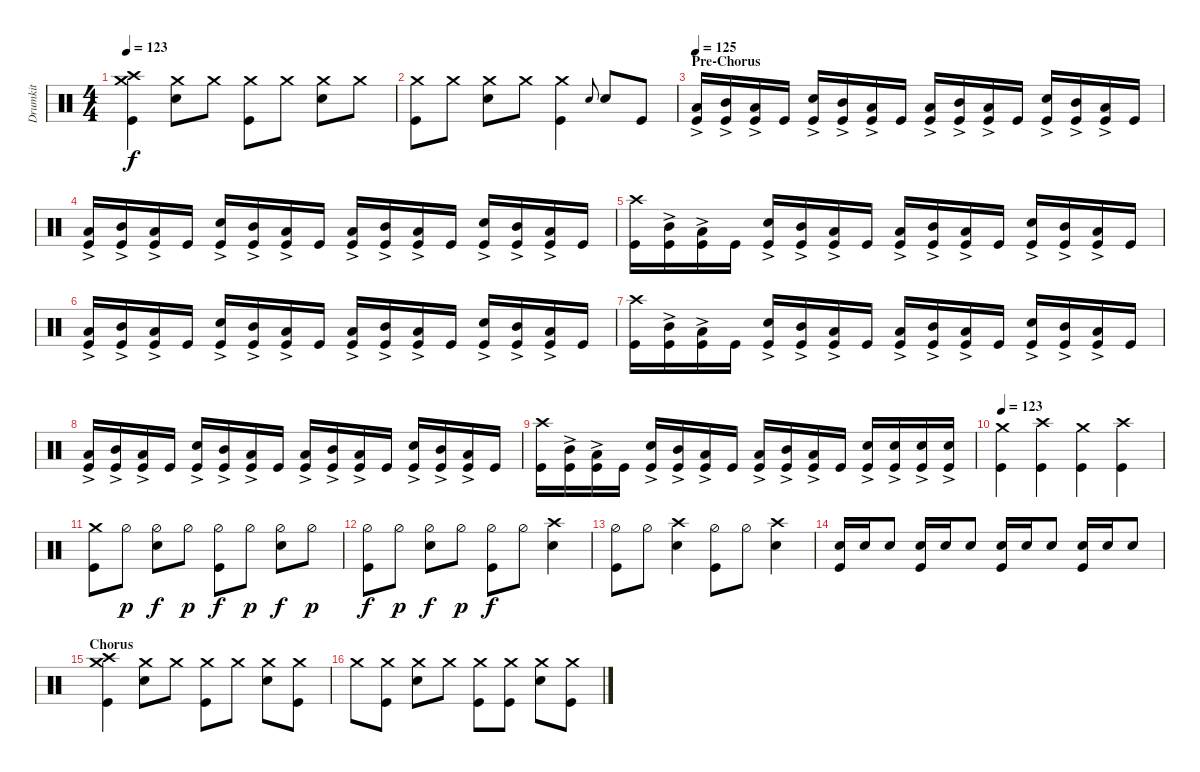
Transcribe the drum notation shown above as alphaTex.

\track ("Drumkit" "Drumkit") {instrument percussion}
\staff {score}
\articulation defaults
\ts (4 4)
\tempo 123
\clef neutral
\ks c
("Kick (hit)" "Crash medium (hit)" "Crash high (hit)").4{dy f} ("Snare (hit) 2" "Crash medium (hit)").8 "Crash medium (hit)".8 ("Kick (hit)" "Crash medium (hit)").8 "Crash medium (hit)".8 ("Snare (hit) 2" "Crash medium (hit)").8 "Crash medium (hit)".8 |
("Kick (hit)" "Crash medium (hit)").8 "Crash medium (hit)".8 ("Snare (hit) 2" "Crash medium (hit)").8 "Crash medium (hit)".8 ("Kick (hit)" "Crash medium (hit)").4 "Snare (hit)".8{gr onbeat} "Snare (hit) 2".8 "Kick (hit)".8 |
\section ("" "Pre-Chorus")
\tempo 125
("Kick (hit)" "Low Tom (hit)"{ac}).16 ("Kick (hit)" "Mid Tom (hit)"{ac}).16 ("Kick (hit)" "Low Tom (hit)"{ac}).16 "Kick (hit)".16 ("Kick (hit)" "Snare (hit) 2"{ac}).16 ("Kick (hit)" "Mid Tom (hit)"{ac}).16 ("Kick (hit)" "Low Tom (hit)"{ac}).16 "Kick (hit)".16 ("Kick (hit)" "Low Tom (hit)"{ac}).16 ("Kick (hit)" "Mid Tom (hit)"{ac}).16 ("Kick (hit)" "Low Tom (hit)"{ac}).16 "Kick (hit)".16 ("Kick (hit)" "Snare (hit) 2"{ac}).16 ("Kick (hit)" "Mid Tom (hit)"{ac}).16 ("Kick (hit)" "Low Tom (hit)"{ac}).16 "Kick (hit)".16 |
("Kick (hit)" "Low Tom (hit)"{ac}).16 ("Kick (hit)" "Mid Tom (hit)"{ac}).16 ("Kick (hit)" "Low Tom (hit)"{ac}).16 "Kick (hit)".16 ("Kick (hit)" "Snare (hit) 2"{ac}).16 ("Kick (hit)" "Mid Tom (hit)"{ac}).16 ("Kick (hit)" "Low Tom (hit)"{ac}).16 "Kick (hit)".16 ("Kick (hit)" "Low Tom (hit)"{ac}).16 ("Kick (hit)" "Mid Tom (hit)"{ac}).16 ("Kick (hit)" "Low Tom (hit)"{ac}).16 "Kick (hit)".16 ("Kick (hit)" "Snare (hit) 2"{ac}).16 ("Kick (hit)" "Mid Tom (hit)"{ac}).16 ("Kick (hit)" "Low Tom (hit)"{ac}).16 "Kick (hit)".16 |
("Kick (hit)" "Crash high (hit)").16 ("Kick (hit)" "Mid Tom (hit)"{ac}).16 ("Kick (hit)" "Low Tom (hit)"{ac}).16 "Kick (hit)".16 ("Kick (hit)" "Snare (hit) 2"{ac}).16 ("Kick (hit)" "Mid Tom (hit)"{ac}).16 ("Kick (hit)" "Low Tom (hit)"{ac}).16 "Kick (hit)".16 ("Kick (hit)" "Low Tom (hit)"{ac}).16 ("Kick (hit)" "Mid Tom (hit)"{ac}).16 ("Kick (hit)" "Low Tom (hit)"{ac}).16 "Kick (hit)".16 ("Kick (hit)" "Snare (hit) 2"{ac}).16 ("Kick (hit)" "Mid Tom (hit)"{ac}).16 ("Kick (hit)" "Low Tom (hit)"{ac}).16 "Kick (hit)".16 |
("Kick (hit)" "Low Tom (hit)"{ac}).16 ("Kick (hit)" "Mid Tom (hit)"{ac}).16 ("Kick (hit)" "Low Tom (hit)"{ac}).16 "Kick (hit)".16 ("Kick (hit)" "Snare (hit) 2"{ac}).16 ("Kick (hit)" "Mid Tom (hit)"{ac}).16 ("Kick (hit)" "Low Tom (hit)"{ac}).16 "Kick (hit)".16 ("Kick (hit)" "Low Tom (hit)"{ac}).16 ("Kick (hit)" "Mid Tom (hit)"{ac}).16 ("Kick (hit)" "Low Tom (hit)"{ac}).16 "Kick (hit)".16 ("Kick (hit)" "Snare (hit) 2"{ac}).16 ("Kick (hit)" "Mid Tom (hit)"{ac}).16 ("Kick (hit)" "Low Tom (hit)"{ac}).16 "Kick (hit)".16 |
("Kick (hit)" "Crash high (hit)").16 ("Kick (hit)" "Mid Tom (hit)"{ac}).16 ("Kick (hit)" "Low Tom (hit)"{ac}).16 "Kick (hit)".16 ("Kick (hit)" "Snare (hit) 2"{ac}).16 ("Kick (hit)" "Mid Tom (hit)"{ac}).16 ("Kick (hit)" "Low Tom (hit)"{ac}).16 "Kick (hit)".16 ("Kick (hit)" "Low Tom (hit)"{ac}).16 ("Kick (hit)" "Mid Tom (hit)"{ac}).16 ("Kick (hit)" "Low Tom (hit)"{ac}).16 "Kick (hit)".16 ("Kick (hit)" "Snare (hit) 2"{ac}).16 ("Kick (hit)" "Mid Tom (hit)"{ac}).16 ("Kick (hit)" "Low Tom (hit)"{ac}).16 "Kick (hit)".16 |
("Kick (hit)" "Low Tom (hit)"{ac}).16 ("Kick (hit)" "Mid Tom (hit)"{ac}).16 ("Kick (hit)" "Low Tom (hit)"{ac}).16 "Kick (hit)".16 ("Kick (hit)" "Snare (hit) 2"{ac}).16 ("Kick (hit)" "Mid Tom (hit)"{ac}).16 ("Kick (hit)" "Low Tom (hit)"{ac}).16 "Kick (hit)".16 ("Kick (hit)" "Low Tom (hit)"{ac}).16 ("Kick (hit)" "Mid Tom (hit)"{ac}).16 ("Kick (hit)" "Low Tom (hit)"{ac}).16 "Kick (hit)".16 ("Kick (hit)" "Snare (hit) 2"{ac}).16 ("Kick (hit)" "Mid Tom (hit)"{ac}).16 ("Kick (hit)" "Low Tom (hit)"{ac}).16 "Kick (hit)".16 |
("Kick (hit)" "Crash high (hit)").16 ("Kick (hit)" "Mid Tom (hit)"{ac}).16 ("Kick (hit)" "Low Tom (hit)"{ac}).16 "Kick (hit)".16 ("Kick (hit)" "Snare (hit) 2"{ac}).16 ("Kick (hit)" "Mid Tom (hit)"{ac}).16 ("Kick (hit)" "Low Tom (hit)"{ac}).16 "Kick (hit)".16 ("Kick (hit)" "Low Tom (hit)"{ac}).16 ("Kick (hit)" "Mid Tom (hit)"{ac}).16 ("Kick (hit)" "Low Tom (hit)"{ac}).16 "Kick (hit)".16 ("Kick (hit)" "Snare (hit) 2"{ac}).16 ("Kick (hit)" "Snare (hit) 2"{ac}).16 ("Kick (hit)" "Snare (hit) 2"{ac}).16 ("Kick (hit)" "Snare (hit) 2"{ac}).16 |
\tempo 123
("Crash medium (hit)" "Kick (hit)").4 ("Crash high (hit)" "Kick (hit)").4 ("Crash medium (hit)" "Kick (hit)").4 ("Crash high (hit)" "Kick (hit)").4 |
("Kick (hit)" "Crash medium (hit)").8 "Hi-Hat (half)".8{dy p} ("Hi-Hat (half)" "Snare (hit) 2").8{dy f} "Hi-Hat (half)".8{dy p} ("Hi-Hat (half)" "Kick (hit)").8{dy f} "Hi-Hat (half)".8{dy p} ("Hi-Hat (half)" "Snare (hit) 2").8{dy f} "Hi-Hat (half)".8{dy p} |
("Hi-Hat (half)" "Kick (hit)").8{dy f} "Hi-Hat (half)".8{dy p} ("Hi-Hat (half)" "Snare (hit) 2").8{dy f} "Hi-Hat (half)".8{dy p} ("Hi-Hat (half)" "Kick (hit)").8{dy f} "Hi-Hat (half)".8 ("Snare (hit) 2" "Crash high (hit)").4 |
("Hi-Hat (half)" "Kick (hit)").8 "Hi-Hat (half)".8 ("Snare (hit) 2" "Crash high (hit)").4 ("Hi-Hat (half)" "Kick (hit)").8 "Hi-Hat (half)".8 ("Snare (hit) 2" "Crash high (hit)").4 |
("Kick (hit)" "Snare (hit) 2").16 "Snare (hit) 2".16 "Snare (hit) 2".8 ("Kick (hit)" "Snare (hit) 2").16 "Snare (hit) 2".16 "Snare (hit) 2".8 ("Kick (hit)" "Snare (hit) 2").16 "Snare (hit) 2".16 "Snare (hit) 2".8 ("Kick (hit)" "Snare (hit) 2").16 "Snare (hit) 2".16 "Snare (hit) 2".8 |
\section ("" "Chorus")
("Kick (hit)" "Crash medium (hit)" "Crash high (hit)").4 ("Snare (hit) 2" "Crash medium (hit)").8 "Crash medium (hit)".8 ("Kick (hit)" "Crash medium (hit)").8 "Crash medium (hit)".8 ("Snare (hit) 2" "Crash medium (hit)").8 ("Crash medium (hit)" "Kick (hit)").8 |
"Crash medium (hit)".8 ("Crash medium (hit)" "Kick (hit)").8 ("Snare (hit) 2" "Crash medium (hit)").8 "Crash medium (hit)".8 ("Kick (hit)" "Crash medium (hit)").8 ("Crash medium (hit)" "Kick (hit)").8 ("Snare (hit) 2" "Crash medium (hit)").8 ("Crash medium (hit)" "Kick (hit)").8
